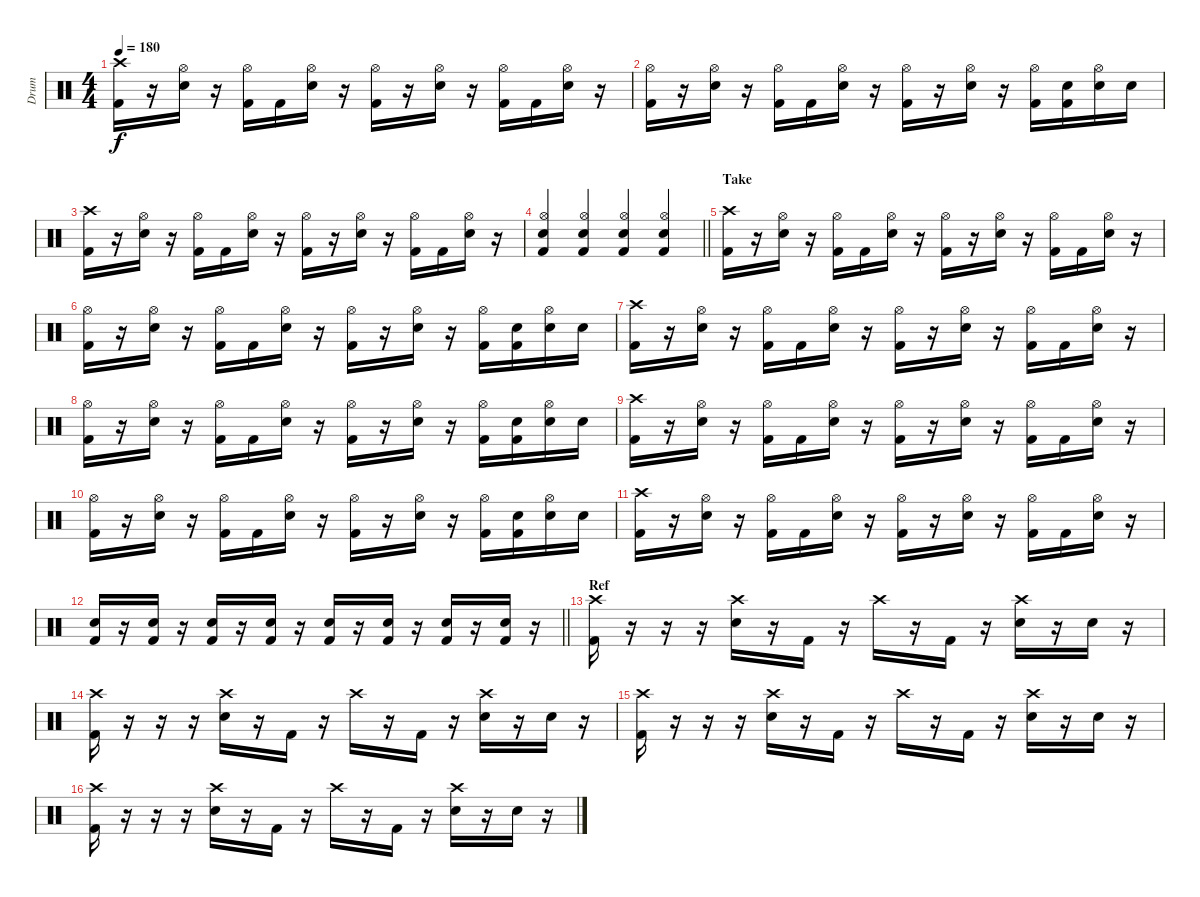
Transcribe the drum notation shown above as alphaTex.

\track ("Drum" "Drum") {instrument percussion}
\staff {score}
\articulation defaults
\ts (4 4)
\tempo 180
\clef neutral
\ks c
("Crash high (hit)" "Kick (hit) 2").16{dy f} r.16 ("Hi-Hat (open)" "Electric Snare (hit)").16 r.16 ("Hi-Hat (open)" "Kick (hit) 2").16 "Kick (hit) 2".16 ("Hi-Hat (open)" "Electric Snare (hit)").16 r.16 ("Hi-Hat (open)" "Kick (hit) 2").16 r.16 ("Hi-Hat (open)" "Electric Snare (hit)").16 r.16 ("Hi-Hat (open)" "Kick (hit) 2").16 "Kick (hit) 2".16 ("Hi-Hat (open)" "Electric Snare (hit)").16 r.16 |
("Hi-Hat (open)" "Kick (hit) 2").16 r.16 ("Hi-Hat (open)" "Electric Snare (hit)").16 r.16 ("Hi-Hat (open)" "Kick (hit) 2").16 "Kick (hit) 2".16 ("Hi-Hat (open)" "Electric Snare (hit)").16 r.16 ("Hi-Hat (open)" "Kick (hit) 2").16 r.16 ("Hi-Hat (open)" "Electric Snare (hit)").16 r.16 ("Hi-Hat (open)" "Kick (hit) 2").16 ("Electric Snare (hit)" "Kick (hit) 2").16 ("Hi-Hat (open)" "Electric Snare (hit)").16 "Electric Snare (hit)".16 |
("Crash high (hit)" "Kick (hit) 2").16 r.16 ("Hi-Hat (open)" "Electric Snare (hit)").16 r.16 ("Hi-Hat (open)" "Kick (hit) 2").16 "Kick (hit) 2".16 ("Hi-Hat (open)" "Electric Snare (hit)").16 r.16 ("Hi-Hat (open)" "Kick (hit) 2").16 r.16 ("Hi-Hat (open)" "Electric Snare (hit)").16 r.16 ("Hi-Hat (open)" "Kick (hit) 2").16 "Kick (hit) 2".16 ("Hi-Hat (open)" "Electric Snare (hit)").16 r.16 |
\barLineRight lightlight
("Hi-Hat (open)" "Electric Snare (hit)" "Kick (hit) 2").4 ("Hi-Hat (open)" "Electric Snare (hit)" "Kick (hit) 2").4 ("Hi-Hat (open)" "Electric Snare (hit)" "Kick (hit) 2").4 ("Hi-Hat (open)" "Electric Snare (hit)" "Kick (hit) 2").4 |
\section ("" "Take")
("Crash high (hit)" "Kick (hit) 2").16 r.16 ("Hi-Hat (open)" "Electric Snare (hit)").16 r.16 ("Hi-Hat (open)" "Kick (hit) 2").16 "Kick (hit) 2".16 ("Hi-Hat (open)" "Electric Snare (hit)").16 r.16 ("Hi-Hat (open)" "Kick (hit) 2").16 r.16 ("Hi-Hat (open)" "Electric Snare (hit)").16 r.16 ("Hi-Hat (open)" "Kick (hit) 2").16 "Kick (hit) 2".16 ("Hi-Hat (open)" "Electric Snare (hit)").16 r.16 |
("Hi-Hat (open)" "Kick (hit) 2").16 r.16 ("Hi-Hat (open)" "Electric Snare (hit)").16 r.16 ("Hi-Hat (open)" "Kick (hit) 2").16 "Kick (hit) 2".16 ("Hi-Hat (open)" "Electric Snare (hit)").16 r.16 ("Hi-Hat (open)" "Kick (hit) 2").16 r.16 ("Hi-Hat (open)" "Electric Snare (hit)").16 r.16 ("Hi-Hat (open)" "Kick (hit) 2").16 ("Electric Snare (hit)" "Kick (hit) 2").16 ("Hi-Hat (open)" "Electric Snare (hit)").16 "Electric Snare (hit)".16 |
("Crash high (hit)" "Kick (hit) 2").16 r.16 ("Hi-Hat (open)" "Electric Snare (hit)").16 r.16 ("Hi-Hat (open)" "Kick (hit) 2").16 "Kick (hit) 2".16 ("Hi-Hat (open)" "Electric Snare (hit)").16 r.16 ("Hi-Hat (open)" "Kick (hit) 2").16 r.16 ("Hi-Hat (open)" "Electric Snare (hit)").16 r.16 ("Hi-Hat (open)" "Kick (hit) 2").16 "Kick (hit) 2".16 ("Hi-Hat (open)" "Electric Snare (hit)").16 r.16 |
("Hi-Hat (open)" "Kick (hit) 2").16 r.16 ("Hi-Hat (open)" "Electric Snare (hit)").16 r.16 ("Hi-Hat (open)" "Kick (hit) 2").16 "Kick (hit) 2".16 ("Hi-Hat (open)" "Electric Snare (hit)").16 r.16 ("Hi-Hat (open)" "Kick (hit) 2").16 r.16 ("Hi-Hat (open)" "Electric Snare (hit)").16 r.16 ("Hi-Hat (open)" "Kick (hit) 2").16 ("Electric Snare (hit)" "Kick (hit) 2").16 ("Hi-Hat (open)" "Electric Snare (hit)").16 "Electric Snare (hit)".16 |
("Crash high (hit)" "Kick (hit) 2").16 r.16 ("Hi-Hat (open)" "Electric Snare (hit)").16 r.16 ("Hi-Hat (open)" "Kick (hit) 2").16 "Kick (hit) 2".16 ("Hi-Hat (open)" "Electric Snare (hit)").16 r.16 ("Hi-Hat (open)" "Kick (hit) 2").16 r.16 ("Hi-Hat (open)" "Electric Snare (hit)").16 r.16 ("Hi-Hat (open)" "Kick (hit) 2").16 "Kick (hit) 2".16 ("Hi-Hat (open)" "Electric Snare (hit)").16 r.16 |
("Hi-Hat (open)" "Kick (hit) 2").16 r.16 ("Hi-Hat (open)" "Electric Snare (hit)").16 r.16 ("Hi-Hat (open)" "Kick (hit) 2").16 "Kick (hit) 2".16 ("Hi-Hat (open)" "Electric Snare (hit)").16 r.16 ("Hi-Hat (open)" "Kick (hit) 2").16 r.16 ("Hi-Hat (open)" "Electric Snare (hit)").16 r.16 ("Hi-Hat (open)" "Kick (hit) 2").16 ("Electric Snare (hit)" "Kick (hit) 2").16 ("Hi-Hat (open)" "Electric Snare (hit)").16 "Electric Snare (hit)".16 |
("Crash high (hit)" "Kick (hit) 2").16 r.16 ("Hi-Hat (open)" "Electric Snare (hit)").16 r.16 ("Hi-Hat (open)" "Kick (hit) 2").16 "Kick (hit) 2".16 ("Hi-Hat (open)" "Electric Snare (hit)").16 r.16 ("Hi-Hat (open)" "Kick (hit) 2").16 r.16 ("Hi-Hat (open)" "Electric Snare (hit)").16 r.16 ("Hi-Hat (open)" "Kick (hit) 2").16 "Kick (hit) 2".16 ("Hi-Hat (open)" "Electric Snare (hit)").16 r.16 |
\barLineRight lightlight
("Electric Snare (hit)" "Kick (hit) 2").16 r.16 ("Electric Snare (hit)" "Kick (hit) 2").16 r.16 ("Electric Snare (hit)" "Kick (hit) 2").16 r.16 ("Electric Snare (hit)" "Kick (hit) 2").16 r.16 ("Electric Snare (hit)" "Kick (hit) 2").16 r.16 ("Electric Snare (hit)" "Kick (hit) 2").16 r.16 ("Electric Snare (hit)" "Kick (hit) 2").16 r.16 ("Electric Snare (hit)" "Kick (hit) 2").16 r.16 |
\section ("" "Ref")
("Crash high (hit)" "Kick (hit) 2").16 r.16 r.16 r.16 ("Crash high (hit)" "Electric Snare (hit)").16 r.16 "Kick (hit) 2".16 r.16 "Crash high (hit)".16 r.16 "Kick (hit) 2".16 r.16 ("Crash high (hit)" "Electric Snare (hit)").16 r.16 "Electric Snare (hit)".16 r.16 |
("Crash high (hit)" "Kick (hit) 2").16 r.16 r.16 r.16 ("Crash high (hit)" "Electric Snare (hit)").16 r.16 "Kick (hit) 2".16 r.16 "Crash high (hit)".16 r.16 "Kick (hit) 2".16 r.16 ("Crash high (hit)" "Electric Snare (hit)").16 r.16 "Electric Snare (hit)".16 r.16 |
("Crash high (hit)" "Kick (hit) 2").16 r.16 r.16 r.16 ("Crash high (hit)" "Electric Snare (hit)").16 r.16 "Kick (hit) 2".16 r.16 "Crash high (hit)".16 r.16 "Kick (hit) 2".16 r.16 ("Crash high (hit)" "Electric Snare (hit)").16 r.16 "Electric Snare (hit)".16 r.16 |
("Crash high (hit)" "Kick (hit) 2").16 r.16 r.16 r.16 ("Crash high (hit)" "Electric Snare (hit)").16 r.16 "Kick (hit) 2".16 r.16 "Crash high (hit)".16 r.16 "Kick (hit) 2".16 r.16 ("Crash high (hit)" "Electric Snare (hit)").16 r.16 "Electric Snare (hit)".16 r.16
